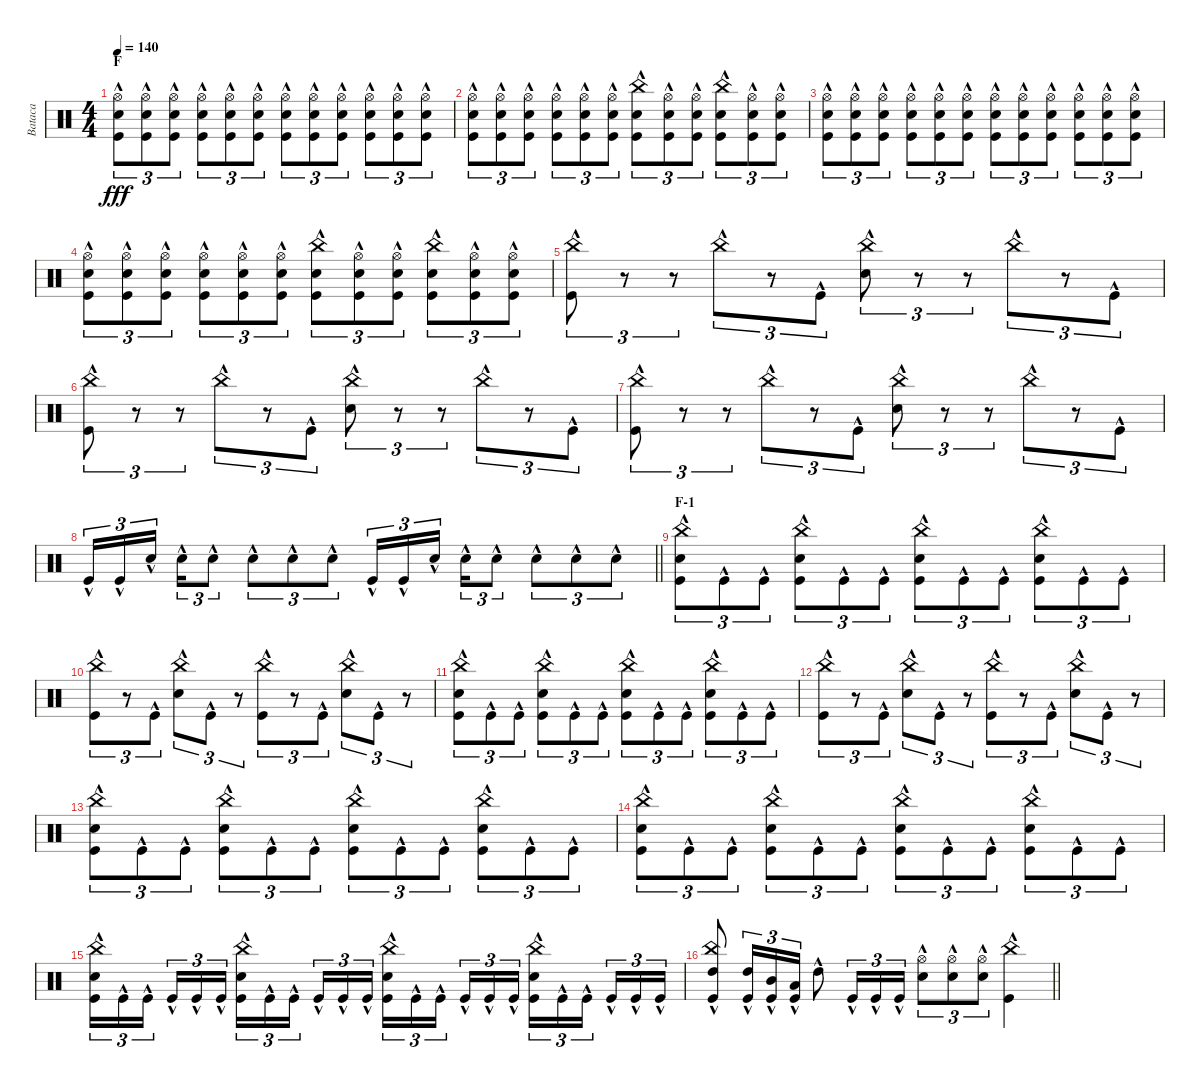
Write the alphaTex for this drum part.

\track ("Bataca" "Bataca") {instrument percussion}
\staff {score}
\articulation defaults
\ts (4 4)
\section ("" "F")
\tempo 140
\clef neutral
\ks c
("Hi-Hat (open)"{hac} "Electric Snare (hit)"{hac} "Kick (hit)"{hac}).8{tu (3 2) dy fff} ("Hi-Hat (open)"{hac} "Electric Snare (hit)"{hac} "Kick (hit)"{hac}).8{tu (3 2)} ("Hi-Hat (open)"{hac} "Electric Snare (hit)"{hac} "Kick (hit)"{hac}).8{tu (3 2)} ("Hi-Hat (open)"{hac} "Electric Snare (hit)"{hac} "Kick (hit)"{hac}).8{tu (3 2)} ("Hi-Hat (open)"{hac} "Electric Snare (hit)"{hac} "Kick (hit)"{hac}).8{tu (3 2)} ("Hi-Hat (open)"{hac} "Electric Snare (hit)"{hac} "Kick (hit)"{hac}).8{tu (3 2)} ("Hi-Hat (open)"{hac} "Electric Snare (hit)"{hac} "Kick (hit)"{hac}).8{tu (3 2)} ("Hi-Hat (open)"{hac} "Electric Snare (hit)"{hac} "Kick (hit)"{hac}).8{tu (3 2)} ("Hi-Hat (open)"{hac} "Electric Snare (hit)"{hac} "Kick (hit)"{hac}).8{tu (3 2)} ("Hi-Hat (open)"{hac} "Electric Snare (hit)"{hac} "Kick (hit)"{hac}).8{tu (3 2)} ("Hi-Hat (open)"{hac} "Electric Snare (hit)"{hac} "Kick (hit)"{hac}).8{tu (3 2)} ("Hi-Hat (open)"{hac} "Electric Snare (hit)"{hac} "Kick (hit)"{hac}).8{tu (3 2)} |
("Hi-Hat (open)"{hac} "Electric Snare (hit)"{hac} "Kick (hit)"{hac}).8{tu (3 2)} ("Hi-Hat (open)"{hac} "Electric Snare (hit)"{hac} "Kick (hit)"{hac}).8{tu (3 2)} ("Hi-Hat (open)"{hac} "Electric Snare (hit)"{hac} "Kick (hit)"{hac}).8{tu (3 2)} ("Hi-Hat (open)"{hac} "Electric Snare (hit)"{hac} "Kick (hit)"{hac}).8{tu (3 2)} ("Hi-Hat (open)"{hac} "Electric Snare (hit)"{hac} "Kick (hit)"{hac}).8{tu (3 2)} ("Hi-Hat (open)"{hac} "Electric Snare (hit)"{hac} "Kick (hit)"{hac}).8{tu (3 2)} ("China (hit)"{hac} "Electric Snare (hit)"{hac} "Kick (hit)"{hac}).8{tu (3 2)} ("Hi-Hat (open)"{hac} "Electric Snare (hit)"{hac} "Kick (hit)"{hac}).8{tu (3 2)} ("Hi-Hat (open)"{hac} "Electric Snare (hit)"{hac} "Kick (hit)"{hac}).8{tu (3 2)} ("China (hit)"{hac} "Electric Snare (hit)"{hac} "Kick (hit)"{hac}).8{tu (3 2)} ("Hi-Hat (open)"{hac} "Electric Snare (hit)"{hac} "Kick (hit)"{hac}).8{tu (3 2)} ("Hi-Hat (open)"{hac} "Electric Snare (hit)"{hac} "Kick (hit)"{hac}).8{tu (3 2)} |
("Hi-Hat (open)"{hac} "Electric Snare (hit)"{hac} "Kick (hit)"{hac}).8{tu (3 2)} ("Hi-Hat (open)"{hac} "Electric Snare (hit)"{hac} "Kick (hit)"{hac}).8{tu (3 2)} ("Hi-Hat (open)"{hac} "Electric Snare (hit)"{hac} "Kick (hit)"{hac}).8{tu (3 2)} ("Hi-Hat (open)"{hac} "Electric Snare (hit)"{hac} "Kick (hit)"{hac}).8{tu (3 2)} ("Hi-Hat (open)"{hac} "Electric Snare (hit)"{hac} "Kick (hit)"{hac}).8{tu (3 2)} ("Hi-Hat (open)"{hac} "Electric Snare (hit)"{hac} "Kick (hit)"{hac}).8{tu (3 2)} ("Hi-Hat (open)"{hac} "Electric Snare (hit)"{hac} "Kick (hit)"{hac}).8{tu (3 2)} ("Hi-Hat (open)"{hac} "Electric Snare (hit)"{hac} "Kick (hit)"{hac}).8{tu (3 2)} ("Hi-Hat (open)"{hac} "Electric Snare (hit)"{hac} "Kick (hit)"{hac}).8{tu (3 2)} ("Hi-Hat (open)"{hac} "Electric Snare (hit)"{hac} "Kick (hit)"{hac}).8{tu (3 2)} ("Hi-Hat (open)"{hac} "Electric Snare (hit)"{hac} "Kick (hit)"{hac}).8{tu (3 2)} ("Hi-Hat (open)"{hac} "Electric Snare (hit)"{hac} "Kick (hit)"{hac}).8{tu (3 2)} |
("Hi-Hat (open)"{hac} "Electric Snare (hit)"{hac} "Kick (hit)"{hac}).8{tu (3 2)} ("Hi-Hat (open)"{hac} "Electric Snare (hit)"{hac} "Kick (hit)"{hac}).8{tu (3 2)} ("Hi-Hat (open)"{hac} "Electric Snare (hit)"{hac} "Kick (hit)"{hac}).8{tu (3 2)} ("Hi-Hat (open)"{hac} "Electric Snare (hit)"{hac} "Kick (hit)"{hac}).8{tu (3 2)} ("Hi-Hat (open)"{hac} "Electric Snare (hit)"{hac} "Kick (hit)"{hac}).8{tu (3 2)} ("Hi-Hat (open)"{hac} "Electric Snare (hit)"{hac} "Kick (hit)"{hac}).8{tu (3 2)} ("China (hit)"{hac} "Electric Snare (hit)"{hac} "Kick (hit)"{hac}).8{tu (3 2)} ("Hi-Hat (open)"{hac} "Electric Snare (hit)"{hac} "Kick (hit)"{hac}).8{tu (3 2)} ("Hi-Hat (open)"{hac} "Electric Snare (hit)"{hac} "Kick (hit)"{hac}).8{tu (3 2)} ("China (hit)"{hac} "Electric Snare (hit)"{hac} "Kick (hit)"{hac}).8{tu (3 2)} ("Hi-Hat (open)"{hac} "Electric Snare (hit)"{hac} "Kick (hit)"{hac}).8{tu (3 2)} ("Hi-Hat (open)"{hac} "Electric Snare (hit)"{hac} "Kick (hit)"{hac}).8{tu (3 2)} |
("China (hit)"{hac} "Kick (hit)"{hac}).8{tu (3 2)} r.8{tu (3 2)} r.8{tu (3 2)} "China (hit)"{hac}.8{tu (3 2)} r.8{tu (3 2)} "Kick (hit)"{hac}.8{tu (3 2)} ("China (hit)"{hac} "Electric Snare (hit)"{hac}).8{tu (3 2)} r.8{tu (3 2)} r.8{tu (3 2)} "China (hit)"{hac}.8{tu (3 2)} r.8{tu (3 2)} "Kick (hit)"{hac}.8{tu (3 2)} |
("China (hit)"{hac} "Kick (hit)"{hac}).8{tu (3 2)} r.8{tu (3 2)} r.8{tu (3 2)} "China (hit)"{hac}.8{tu (3 2)} r.8{tu (3 2)} "Kick (hit)"{hac}.8{tu (3 2)} ("China (hit)"{hac} "Electric Snare (hit)"{hac}).8{tu (3 2)} r.8{tu (3 2)} r.8{tu (3 2)} "China (hit)"{hac}.8{tu (3 2)} r.8{tu (3 2)} "Kick (hit)"{hac}.8{tu (3 2)} |
("China (hit)"{hac} "Kick (hit)"{hac}).8{tu (3 2)} r.8{tu (3 2)} r.8{tu (3 2)} "China (hit)"{hac}.8{tu (3 2)} r.8{tu (3 2)} "Kick (hit)"{hac}.8{tu (3 2)} ("China (hit)"{hac} "Electric Snare (hit)"{hac}).8{tu (3 2)} r.8{tu (3 2)} r.8{tu (3 2)} "China (hit)"{hac}.8{tu (3 2)} r.8{tu (3 2)} "Kick (hit)"{hac}.8{tu (3 2)} |
\barLineRight lightlight "Kick (hit)"{hac}.16{tu (3 2)} "Kick (hit)"{hac}.16{tu (3 2)} "Electric Snare (hit)"{hac}.16{tu (3 2) beam splitsecondary} "Electric Snare (hit)"{hac}.16{tu (3 2)} "Electric Snare (hit)"{hac}.8{tu (3 2)} "Electric Snare (hit)"{hac}.8{tu (3 2)} "Electric Snare (hit)"{hac}.8{tu (3 2)} "Electric Snare (hit)"{hac}.8{tu (3 2)} "Kick (hit)"{hac}.16{tu (3 2)} "Kick (hit)"{hac}.16{tu (3 2)} "Electric Snare (hit)"{hac}.16{tu (3 2) beam splitsecondary} "Electric Snare (hit)"{hac}.16{tu (3 2)} "Electric Snare (hit)"{hac}.8{tu (3 2)} "Electric Snare (hit)"{hac}.8{tu (3 2)} "Electric Snare (hit)"{hac}.8{tu (3 2)} "Electric Snare (hit)"{hac}.8{tu (3 2)}
|
\section ("" "F-1")
("China (hit)"{hac} "Electric Snare (hit)"{hac} "Kick (hit)"{hac}).8{tu (3 2)} "Kick (hit)"{hac}.8{tu (3 2)} "Kick (hit)"{hac}.8{tu (3 2)} ("China (hit)"{hac} "Electric Snare (hit)"{hac} "Kick (hit)"{hac}).8{tu (3 2)} "Kick (hit)"{hac}.8{tu (3 2)} "Kick (hit)"{hac}.8{tu (3 2)} ("China (hit)"{hac} "Electric Snare (hit)"{hac} "Kick (hit)"{hac}).8{tu (3 2)} "Kick (hit)"{hac}.8{tu (3 2)} "Kick (hit)"{hac}.8{tu (3 2)} ("China (hit)"{hac} "Electric Snare (hit)"{hac} "Kick (hit)"{hac}).8{tu (3 2)} "Kick (hit)"{hac}.8{tu (3 2)} "Kick (hit)"{hac}.8{tu (3 2)} |
("China (hit)"{hac} "Kick (hit)"{hac}).8{tu (3 2)} r.8{tu (3 2)} "Kick (hit)"{hac}.8{tu (3 2)} ("China (hit)"{hac} "Electric Snare (hit)"{hac}).8{tu (3 2)} "Kick (hit)"{hac}.8{tu (3 2)} r.8{tu (3 2)} ("China (hit)"{hac} "Kick (hit)"{hac}).8{tu (3 2)} r.8{tu (3 2)} "Kick (hit)"{hac}.8{tu (3 2)} ("China (hit)"{hac} "Electric Snare (hit)"{hac}).8{tu (3 2)} "Kick (hit)"{hac}.8{tu (3 2)} r.8{tu (3 2)} |
("China (hit)"{hac} "Electric Snare (hit)"{hac} "Kick (hit)"{hac}).8{tu (3 2)} "Kick (hit)"{hac}.8{tu (3 2)} "Kick (hit)"{hac}.8{tu (3 2)} ("China (hit)"{hac} "Electric Snare (hit)"{hac} "Kick (hit)"{hac}).8{tu (3 2)} "Kick (hit)"{hac}.8{tu (3 2)} "Kick (hit)"{hac}.8{tu (3 2)} ("China (hit)"{hac} "Electric Snare (hit)"{hac} "Kick (hit)"{hac}).8{tu (3 2)} "Kick (hit)"{hac}.8{tu (3 2)} "Kick (hit)"{hac}.8{tu (3 2)} ("China (hit)"{hac} "Electric Snare (hit)"{hac} "Kick (hit)"{hac}).8{tu (3 2)} "Kick (hit)"{hac}.8{tu (3 2)} "Kick (hit)"{hac}.8{tu (3 2)} |
("China (hit)"{hac} "Kick (hit)"{hac}).8{tu (3 2)} r.8{tu (3 2)} "Kick (hit)"{hac}.8{tu (3 2)} ("China (hit)"{hac} "Electric Snare (hit)"{hac}).8{tu (3 2)} "Kick (hit)"{hac}.8{tu (3 2)} r.8{tu (3 2)} ("China (hit)"{hac} "Kick (hit)"{hac}).8{tu (3 2)} r.8{tu (3 2)} "Kick (hit)"{hac}.8{tu (3 2)} ("China (hit)"{hac} "Electric Snare (hit)"{hac}).8{tu (3 2)} "Kick (hit)"{hac}.8{tu (3 2)} r.8{tu (3 2)} |
("China (hit)"{hac} "Electric Snare (hit)"{hac} "Kick (hit)"{hac}).8{tu (3 2)} "Kick (hit)"{hac}.8{tu (3 2)} "Kick (hit)"{hac}.8{tu (3 2)} ("China (hit)"{hac} "Electric Snare (hit)"{hac} "Kick (hit)"{hac}).8{tu (3 2)} "Kick (hit)"{hac}.8{tu (3 2)} "Kick (hit)"{hac}.8{tu (3 2)} ("China (hit)"{hac} "Electric Snare (hit)"{hac} "Kick (hit)"{hac}).8{tu (3 2)} "Kick (hit)"{hac}.8{tu (3 2)} "Kick (hit)"{hac}.8{tu (3 2)} ("China (hit)"{hac} "Electric Snare (hit)"{hac} "Kick (hit)"{hac}).8{tu (3 2)} "Kick (hit)"{hac}.8{tu (3 2)} "Kick (hit)"{hac}.8{tu (3 2)} |
("China (hit)"{hac} "Electric Snare (hit)"{hac} "Kick (hit)"{hac}).8{tu (3 2)} "Kick (hit)"{hac}.8{tu (3 2)} "Kick (hit)"{hac}.8{tu (3 2)} ("China (hit)"{hac} "Electric Snare (hit)"{hac} "Kick (hit)"{hac}).8{tu (3 2)} "Kick (hit)"{hac}.8{tu (3 2)} "Kick (hit)"{hac}.8{tu (3 2)} ("China (hit)"{hac} "Electric Snare (hit)"{hac} "Kick (hit)"{hac}).8{tu (3 2)} "Kick (hit)"{hac}.8{tu (3 2)} "Kick (hit)"{hac}.8{tu (3 2)} ("China (hit)"{hac} "Electric Snare (hit)"{hac} "Kick (hit)"{hac}).8{tu (3 2)} "Kick (hit)"{hac}.8{tu (3 2)} "Kick (hit)"{hac}.8{tu (3 2)} |
("China (hit)"{hac} "Electric Snare (hit)"{hac} "Kick (hit)"{hac}).16{tu (3 2)} "Kick (hit)"{hac}.16{tu (3 2)} "Kick (hit)"{hac}.16{tu (3 2) beam splitsecondary} "Kick (hit)"{hac}.16{tu (3 2)} "Kick (hit)"{hac}.16{tu (3 2)} "Kick (hit)"{hac}.16{tu (3 2)} ("China (hit)"{hac} "Electric Snare (hit)"{hac} "Kick (hit)"{hac}).16{tu (3 2)} "Kick (hit)"{hac}.16{tu (3 2)} "Kick (hit)"{hac}.16{tu (3 2) beam splitsecondary} "Kick (hit)"{hac}.16{tu (3 2)} "Kick (hit)"{hac}.16{tu (3 2)} "Kick (hit)"{hac}.16{tu (3 2)} ("China (hit)"{hac} "Electric Snare (hit)"{hac} "Kick (hit)"{hac}).16{tu (3 2)} "Kick (hit)"{hac}.16{tu (3 2)} "Kick (hit)"{hac}.16{tu (3 2) beam splitsecondary} "Kick (hit)"{hac}.16{tu (3 2)} "Kick (hit)"{hac}.16{tu (3 2)} "Kick (hit)"{hac}.16{tu (3 2)} ("China (hit)"{hac} "Electric Snare (hit)"{hac} "Kick (hit)"{hac}).16{tu (3 2)} "Kick (hit)"{hac}.16{tu (3 2)} "Kick (hit)"{hac}.16{tu (3 2) beam splitsecondary} "Kick (hit)"{hac}.16{tu (3 2)} "Kick (hit)"{hac}.16{tu (3 2)} "Kick (hit)"{hac}.16{tu (3 2)} |
\barLineRight lightlight
("China (hit)"{hac} "High Tom (hit)"{hac} "Kick (hit)"{hac}).8 ("High Tom (hit)"{hac} "Kick (hit)"{hac}).16{tu (3 2)} ("Mid Tom (hit)"{hac} "Kick (hit)"{hac}).16{tu (3 2)} ("Low Tom (hit)"{hac} "Kick (hit)"{hac}).16{tu (3 2)} "High Tom (hit)"{hac}.8 "Kick (hit)"{hac}.16{tu (3 2)} "Kick (hit)"{hac}.16{tu (3 2)} "Kick (hit)"{hac}.16{tu (3 2)} ("Hi-Hat (open)"{hac} "Electric Snare (hit)"{hac}).8{tu (3 2)} ("Hi-Hat (open)"{hac} "Electric Snare (hit)"{hac}).8{tu (3 2)} ("Hi-Hat (open)"{hac} "Electric Snare (hit)"{hac}).8{tu (3 2)} ("China (hit)"{hac} "Kick (hit)"{hac}).4
